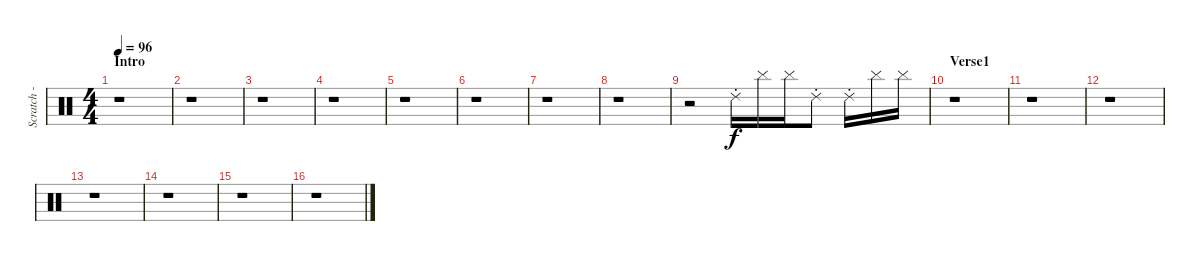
\track ("Scratch - ???" "Scratch - ") {instrument percussion}
\staff {score}
\articulation defaults
\ts (4 4)
\section ("" "Intro")
\tempo 96
\clef neutral
\ks c
r.1{dy f} |
r.1 |
r.1 |
r.1 |
r.1 |
r.1 |
r.1 |
r.1 |
r.2 "Ride (choke) 2".16 "Cymbal (hit)".16 "Cymbal (hit)".16 "Ride (choke) 2".8 "Ride (choke) 2".16 "Cymbal (hit)".16 "Cymbal (hit)".16 |
\section ("" "Verse1")
r.1 |
r.1 |
r.1 |
r.1 |
r.1 |
r.1 |
r.1
